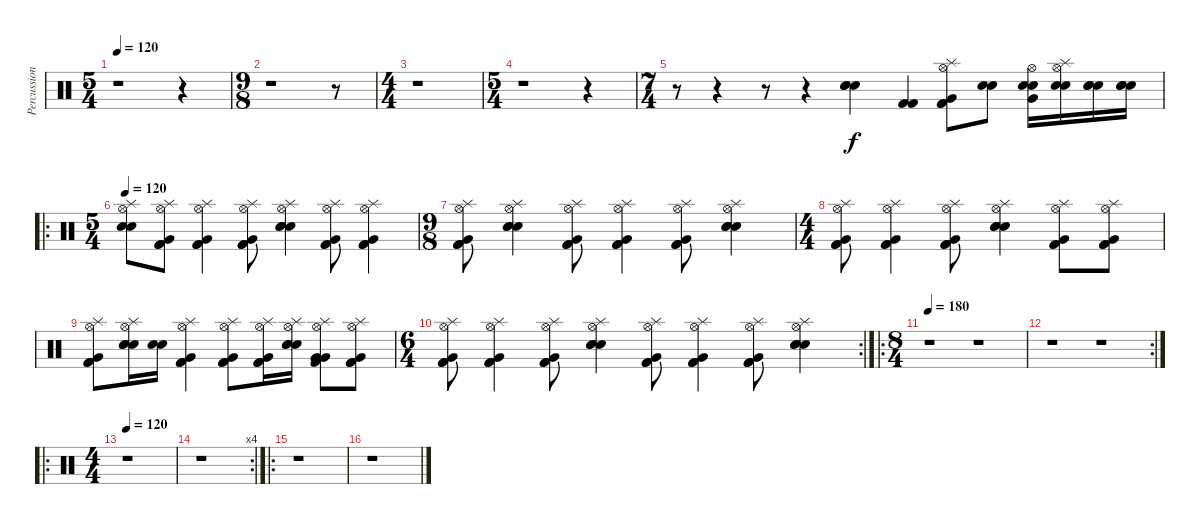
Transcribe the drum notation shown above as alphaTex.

\track ("Percussions" "Percussion") {instrument percussion}
\staff {score}
\articulation defaults
\ts (5 4)
\tempo 120
\clef neutral
\ks c
r.1{dy f} r.4 |
\ts (9 8)
r.1 r.8 |
\ts (4 4)
r.1 |
\ts (5 4)
r.1 r.4 |
\ts (7 4)
r.8 r.4 r.8 r.4 ("Electric Snare (hit)" "Electric Snare (hit)" "Electric Snare (hit)").4 ("Kick (hit) 2" "Kick (hit) 2").4 ("Kick (hit) 2" "Kick (hit) 2" "Very Low Tom (hit)" "Splash (hit)" "Hi-Hat (open)").8 ("Electric Snare (hit)" "Electric Snare (hit)").8 ("Electric Snare (hit)" "Electric Snare (hit)" "Very Low Tom (hit)" "Hi-Hat (open)").16 ("Electric Snare (hit)" "Electric Snare (hit)" "Splash (hit)" "Hi-Hat (open)").16 ("Electric Snare (hit)" "Electric Snare (hit)" "Electric Snare (hit)").16 ("Electric Snare (hit)" "Electric Snare (hit)" "Electric Snare (hit)").16 |
\ro
\ts (5 4)
\tempo 120
("Electric Snare (hit)" "Electric Snare (hit)" "Splash (hit)" "Hi-Hat (open)").8 ("Kick (hit) 2" "Kick (hit) 2" "Hi-Hat (open)" "Very Low Tom (hit)" "Splash (hit)").8 ("Kick (hit) 2" "Kick (hit) 2" "Very Low Tom (hit)" "Hi-Hat (open)" "Splash (hit)").4 ("Kick (hit) 2" "Kick (hit) 2" "Very Low Tom (hit)" "Hi-Hat (open)" "Splash (hit)").8 ("Electric Snare (hit)" "Electric Snare (hit)" "Electric Snare (hit)" "Splash (hit)" "Hi-Hat (open)").4 ("Kick (hit) 2" "Kick (hit) 2" "Hi-Hat (open)" "Very Low Tom (hit)" "Splash (hit)").8 ("Kick (hit) 2" "Kick (hit) 2" "Hi-Hat (open)" "Very Low Tom (hit)" "Splash (hit)").4 |
\ts (9 8)
("Kick (hit) 2" "Kick (hit) 2" "Very Low Tom (hit)" "Hi-Hat (open)" "Splash (hit)").8 ("Electric Snare (hit)" "Electric Snare (hit)" "Electric Snare (hit)" "Hi-Hat (open)" "Splash (hit)").4 ("Kick (hit) 2" "Kick (hit) 2" "Very Low Tom (hit)" "Hi-Hat (open)" "Splash (hit)").8 ("Kick (hit) 2" "Kick (hit) 2" "Very Low Tom (hit)" "Hi-Hat (open)" "Splash (hit)").4 ("Kick (hit) 2" "Kick (hit) 2" "Very Low Tom (hit)" "Hi-Hat (open)" "Splash (hit)").8 ("Electric Snare (hit)" "Electric Snare (hit)" "Electric Snare (hit)" "Hi-Hat (open)" "Splash (hit)").4 |
\ts (4 4)
("Kick (hit) 2" "Kick (hit) 2" "Hi-Hat (open)" "Very Low Tom (hit)" "Splash (hit)").8 ("Kick (hit) 2" "Kick (hit) 2" "Very Low Tom (hit)" "Hi-Hat (open)" "Splash (hit)").4 ("Kick (hit) 2" "Kick (hit) 2" "Very Low Tom (hit)" "Hi-Hat (open)" "Splash (hit)").8 ("Electric Snare (hit)" "Electric Snare (hit)" "Electric Snare (hit)" "Splash (hit)" "Hi-Hat (open)").4 ("Kick (hit) 2" "Kick (hit) 2" "Hi-Hat (open)" "Very Low Tom (hit)" "Splash (hit)").8 ("Kick (hit) 2" "Kick (hit) 2" "Hi-Hat (open)" "Very Low Tom (hit)" "Splash (hit)").8 |
("Kick (hit) 2" "Kick (hit) 2" "Very Low Tom (hit)" "Hi-Hat (open)" "Splash (hit)").8 ("Electric Snare (hit)" "Electric Snare (hit)" "Electric Snare (hit)" "Hi-Hat (open)" "Splash (hit)").16 ("Electric Snare (hit)" "Electric Snare (hit)").16 ("Kick (hit) 2" "Kick (hit) 2" "Very Low Tom (hit)" "Hi-Hat (open)" "Splash (hit)").4 ("Kick (hit) 2" "Kick (hit) 2" "Very Low Tom (hit)" "Hi-Hat (open)" "Splash (hit)").8 ("Kick (hit) 2" "Kick (hit) 2" "Very Low Tom (hit)" "Hi-Hat (open)" "Splash (hit)").16 ("Electric Snare (hit)" "Electric Snare (hit)" "Electric Snare (hit)" "Hi-Hat (open)" "Splash (hit)").16 ("Kick (hit) 2" "Very Low Tom (hit)" "Very Low Tom (hit)" "Splash (hit)" "Hi-Hat (open)").8 ("Kick (hit) 2" "Kick (hit) 2" "Very Low Tom (hit)" "Splash (hit)" "Hi-Hat (open)").8 |
\rc 2
\ts (6 4)
("Kick (hit) 2" "Kick (hit) 2" "Splash (hit)" "Hi-Hat (open)" "Very Low Tom (hit)").8 ("Kick (hit) 2" "Kick (hit) 2" "Splash (hit)" "Hi-Hat (open)" "Very Low Tom (hit)").4 ("Kick (hit) 2" "Kick (hit) 2" "Splash (hit)" "Hi-Hat (open)" "Very Low Tom (hit)").8 ("Electric Snare (hit)" "Electric Snare (hit)" "Electric Snare (hit)" "Hi-Hat (open)" "Splash (hit)").4 ("Kick (hit) 2" "Kick (hit) 2" "Splash (hit)" "Hi-Hat (open)" "Very Low Tom (hit)").8 ("Kick (hit) 2" "Kick (hit) 2" "Splash (hit)" "Hi-Hat (open)" "Very Low Tom (hit)").4 ("Kick (hit) 2" "Kick (hit) 2" "Splash (hit)" "Hi-Hat (open)" "Very Low Tom (hit)").8 ("Electric Snare (hit)" "Electric Snare (hit)" "Electric Snare (hit)" "Hi-Hat (open)" "Splash (hit)").4 |
\ro
\ts (8 4)
\tempo 180
r.1 r.1 |
\rc 2
r.1 r.1 |
\ro
\ts (4 4)
\tempo 120
r.1 |
\rc 4
r.1 |
\ro
r.1 |
r.1
